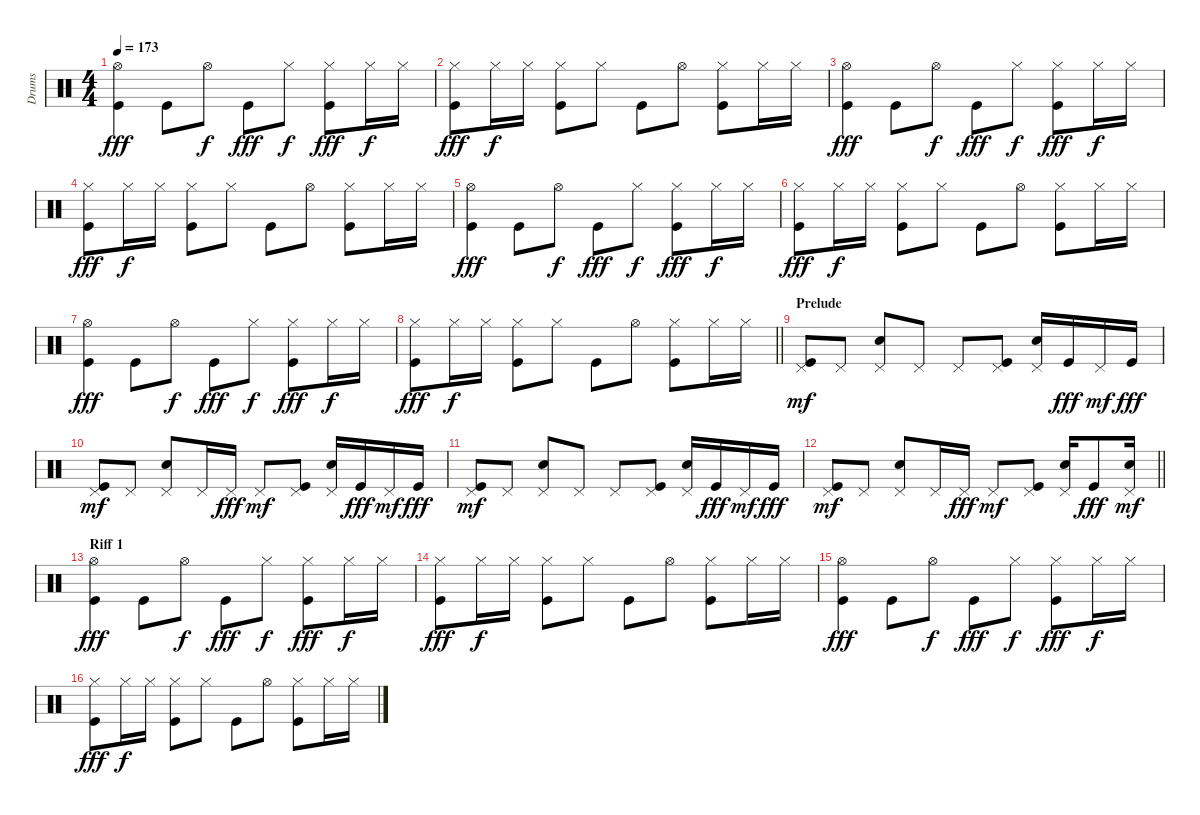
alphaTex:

\track ("Drums" "Drums") {instrument percussion}
\staff {score}
\articulation defaults
\ts (4 4)
\tempo 173
\clef neutral
\ks c
("Kick (hit)" "Hi-Hat (open)").4{dy fff} "Kick (hit)".8 "Hi-Hat (open)".8{dy f} "Kick (hit)".8{dy fff} "Hi-Hat (closed)".8{dy f} ("Kick (hit)" "Hi-Hat (closed)").8{dy fff} "Hi-Hat (closed)".16{dy f} "Hi-Hat (closed)".16 |
("Kick (hit)" "Hi-Hat (closed)").8{dy fff} "Hi-Hat (closed)".16{dy f} "Hi-Hat (closed)".16 ("Kick (hit)" "Hi-Hat (closed)").8 "Hi-Hat (closed)".8 "Kick (hit)".8 "Hi-Hat (open)".8 ("Kick (hit)" "Hi-Hat (closed)").8 "Hi-Hat (closed)".16 "Hi-Hat (closed)".16 |
("Kick (hit)" "Hi-Hat (open)").4{dy fff} "Kick (hit)".8 "Hi-Hat (open)".8{dy f} "Kick (hit)".8{dy fff} "Hi-Hat (closed)".8{dy f} ("Kick (hit)" "Hi-Hat (closed)").8{dy fff} "Hi-Hat (closed)".16{dy f} "Hi-Hat (closed)".16 |
("Kick (hit)" "Hi-Hat (closed)").8{dy fff} "Hi-Hat (closed)".16{dy f} "Hi-Hat (closed)".16 ("Kick (hit)" "Hi-Hat (closed)").8 "Hi-Hat (closed)".8 "Kick (hit)".8 "Hi-Hat (open)".8 ("Kick (hit)" "Hi-Hat (closed)").8 "Hi-Hat (closed)".16 "Hi-Hat (closed)".16 |
("Kick (hit)" "Hi-Hat (open)").4{dy fff} "Kick (hit)".8 "Hi-Hat (open)".8{dy f} "Kick (hit)".8{dy fff} "Hi-Hat (closed)".8{dy f} ("Kick (hit)" "Hi-Hat (closed)").8{dy fff} "Hi-Hat (closed)".16{dy f} "Hi-Hat (closed)".16 |
("Kick (hit)" "Hi-Hat (closed)").8{dy fff} "Hi-Hat (closed)".16{dy f} "Hi-Hat (closed)".16 ("Kick (hit)" "Hi-Hat (closed)").8 "Hi-Hat (closed)".8 "Kick (hit)".8 "Hi-Hat (open)".8 ("Kick (hit)" "Hi-Hat (closed)").8 "Hi-Hat (closed)".16 "Hi-Hat (closed)".16 |
("Kick (hit)" "Hi-Hat (open)").4{dy fff} "Kick (hit)".8 "Hi-Hat (open)".8{dy f} "Kick (hit)".8{dy fff} "Hi-Hat (closed)".8{dy f} ("Kick (hit)" "Hi-Hat (closed)").8{dy fff} "Hi-Hat (closed)".16{dy f} "Hi-Hat (closed)".16 |
\barLineRight lightlight
("Kick (hit)" "Hi-Hat (closed)").8{dy fff} "Hi-Hat (closed)".16{dy f} "Hi-Hat (closed)".16 ("Kick (hit)" "Hi-Hat (closed)").8 "Hi-Hat (closed)".8 "Kick (hit)".8 "Hi-Hat (open)".8 ("Kick (hit)" "Hi-Hat (closed)").8 "Hi-Hat (closed)".16 "Hi-Hat (closed)".16 |
\section ("" "Prelude")
("Kick (hit)" "Pedal Hi-Hat (hit)").8{dy mf} "Pedal Hi-Hat (hit)".8 ("Snare (hit) 2" "Pedal Hi-Hat (hit)").8 "Pedal Hi-Hat (hit)".8 "Pedal Hi-Hat (hit)".8 ("Kick (hit)" "Pedal Hi-Hat (hit)").8 ("Snare (hit) 2" "Pedal Hi-Hat (hit)").16 "Kick (hit)".16{dy fff} "Pedal Hi-Hat (hit)".16{dy mf} "Kick (hit)".16{dy fff} |
("Kick (hit)" "Pedal Hi-Hat (hit)").8{dy mf} "Pedal Hi-Hat (hit)".8 ("Snare (hit) 2" "Pedal Hi-Hat (hit)").8 "Pedal Hi-Hat (hit)".16 "Pedal Hi-Hat (hit)".16{dy fff} "Pedal Hi-Hat (hit)".8{dy mf} ("Kick (hit)" "Pedal Hi-Hat (hit)").8 ("Snare (hit) 2" "Pedal Hi-Hat (hit)").16 "Kick (hit)".16{dy fff} "Pedal Hi-Hat (hit)".16{dy mf} "Kick (hit)".16{dy fff} |
("Kick (hit)" "Pedal Hi-Hat (hit)").8{dy mf} "Pedal Hi-Hat (hit)".8 ("Snare (hit) 2" "Pedal Hi-Hat (hit)").8 "Pedal Hi-Hat (hit)".8 "Pedal Hi-Hat (hit)".8 ("Kick (hit)" "Pedal Hi-Hat (hit)").8 ("Snare (hit) 2" "Pedal Hi-Hat (hit)").16 "Kick (hit)".16{dy fff} "Pedal Hi-Hat (hit)".16{dy mf} "Kick (hit)".16{dy fff} |
\barLineRight lightlight
("Kick (hit)" "Pedal Hi-Hat (hit)").8{dy mf} "Pedal Hi-Hat (hit)".8 ("Snare (hit) 2" "Pedal Hi-Hat (hit)").8 "Pedal Hi-Hat (hit)".16 "Pedal Hi-Hat (hit)".16{dy fff} "Pedal Hi-Hat (hit)".8{dy mf} ("Kick (hit)" "Pedal Hi-Hat (hit)").8 ("Snare (hit) 2" "Pedal Hi-Hat (hit)").16 "Kick (hit)".8{dy fff} ("Snare (hit) 2" "Pedal Hi-Hat (hit)").16{dy mf} |
\section ("" "Riff 1")
("Kick (hit)" "Hi-Hat (open)").4{dy fff} "Kick (hit)".8 "Hi-Hat (open)".8{dy f} "Kick (hit)".8{dy fff} "Hi-Hat (closed)".8{dy f} ("Kick (hit)" "Hi-Hat (closed)").8{dy fff} "Hi-Hat (closed)".16{dy f} "Hi-Hat (closed)".16 |
("Kick (hit)" "Hi-Hat (closed)").8{dy fff} "Hi-Hat (closed)".16{dy f} "Hi-Hat (closed)".16 ("Kick (hit)" "Hi-Hat (closed)").8 "Hi-Hat (closed)".8 "Kick (hit)".8 "Hi-Hat (open)".8 ("Kick (hit)" "Hi-Hat (closed)").8 "Hi-Hat (closed)".16 "Hi-Hat (closed)".16 |
("Kick (hit)" "Hi-Hat (open)").4{dy fff} "Kick (hit)".8 "Hi-Hat (open)".8{dy f} "Kick (hit)".8{dy fff} "Hi-Hat (closed)".8{dy f} ("Kick (hit)" "Hi-Hat (closed)").8{dy fff} "Hi-Hat (closed)".16{dy f} "Hi-Hat (closed)".16 |
("Kick (hit)" "Hi-Hat (closed)").8{dy fff} "Hi-Hat (closed)".16{dy f} "Hi-Hat (closed)".16 ("Kick (hit)" "Hi-Hat (closed)").8 "Hi-Hat (closed)".8 "Kick (hit)".8 "Hi-Hat (open)".8 ("Kick (hit)" "Hi-Hat (closed)").8 "Hi-Hat (closed)".16 "Hi-Hat (closed)".16
